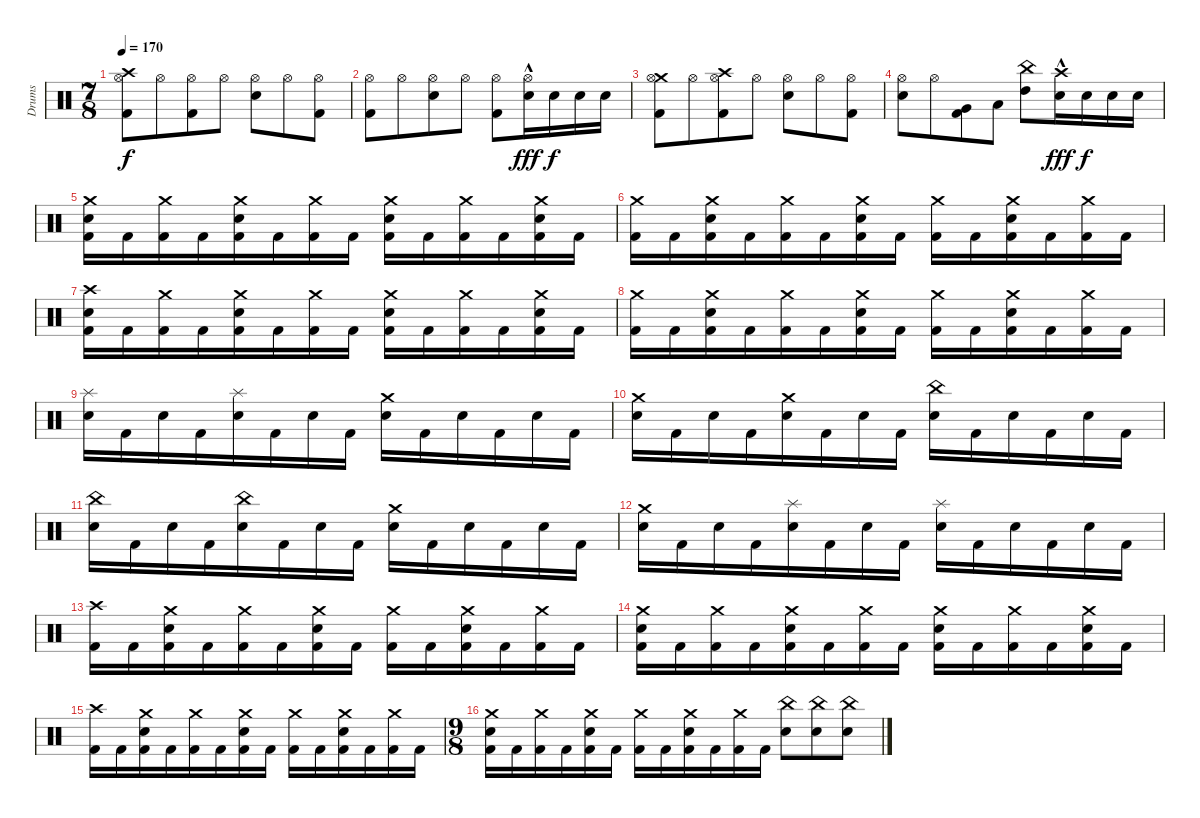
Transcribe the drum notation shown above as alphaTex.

\track ("Drums" "Drums") {instrument percussion}
\staff {score}
\articulation defaults
\ts (7 8)
\tempo 170
\clef neutral
\ks c
("Crash high (hit)" "Hi-Hat (open)" "Kick (hit) 2").8{dy f} "Hi-Hat (open)".8 ("Hi-Hat (open)" "Kick (hit) 2").8 "Hi-Hat (open)".8 ("Hi-Hat (open)" "Electric Snare (hit)").8 "Hi-Hat (open)".8 ("Hi-Hat (open)" "Kick (hit) 2").8 |
("Hi-Hat (open)" "Kick (hit) 2").8 "Hi-Hat (open)".8 ("Hi-Hat (open)" "Electric Snare (hit)").8 "Hi-Hat (open)".8 ("Hi-Hat (open)" "Kick (hit) 2").8 ("Hi-Hat (open)" "Electric Snare (hit)"{hac}).16{dy fff} "Electric Snare (hit)".16{dy f} "Electric Snare (hit)".16 "Electric Snare (hit)".16 |
("Crash medium (hit)" "Hi-Hat (open)" "Kick (hit) 2").8 "Hi-Hat (open)".8 ("Crash high (hit)" "Hi-Hat (open)" "Kick (hit) 2").8 "Hi-Hat (open)".8 ("Hi-Hat (open)" "Electric Snare (hit)").8 "Hi-Hat (open)".8 ("Hi-Hat (open)" "Kick (hit) 2").8 |
("Hi-Hat (open)" "Electric Snare (hit)").8 "Hi-Hat (open)".8 ("Very Low Tom (hit)" "Kick (hit) 2").8 "Low Tom (hit)".8 ("China (hit)" "High Tom (hit)").8 ("Crash high (hit)" "Electric Snare (hit)"{hac}).16{dy fff} "Electric Snare (hit)".16{dy f} "Electric Snare (hit)".16 "Electric Snare (hit)".16 |
("Crash medium (hit)" "Electric Snare (hit)" "Kick (hit) 2").16 "Kick (hit) 2".16 ("Crash medium (hit)" "Kick (hit) 2").16 "Kick (hit) 2".16 ("Crash medium (hit)" "Electric Snare (hit)" "Kick (hit) 2").16 "Kick (hit) 2".16 ("Crash medium (hit)" "Kick (hit) 2").16 "Kick (hit) 2".16 ("Crash medium (hit)" "Electric Snare (hit)" "Kick (hit) 2").16 "Kick (hit) 2".16 ("Crash medium (hit)" "Kick (hit) 2").16 "Kick (hit) 2".16 ("Crash medium (hit)" "Electric Snare (hit)" "Kick (hit) 2").16 "Kick (hit) 2".16 |
("Crash medium (hit)" "Kick (hit) 2").16 "Kick (hit) 2".16 ("Crash medium (hit)" "Electric Snare (hit)" "Kick (hit) 2").16 "Kick (hit) 2".16 ("Crash medium (hit)" "Kick (hit) 2").16 "Kick (hit) 2".16 ("Crash medium (hit)" "Electric Snare (hit)" "Kick (hit) 2").16 "Kick (hit) 2".16 ("Crash medium (hit)" "Kick (hit) 2").16 "Kick (hit) 2".16 ("Crash medium (hit)" "Electric Snare (hit)" "Kick (hit) 2").16 "Kick (hit) 2".16 ("Crash medium (hit)" "Kick (hit) 2").16 "Kick (hit) 2".16 |
("Crash high (hit)" "Electric Snare (hit)" "Kick (hit) 2").16 "Kick (hit) 2".16 ("Crash medium (hit)" "Kick (hit) 2").16 "Kick (hit) 2".16 ("Crash medium (hit)" "Electric Snare (hit)" "Kick (hit) 2").16 "Kick (hit) 2".16 ("Crash medium (hit)" "Kick (hit) 2").16 "Kick (hit) 2".16 ("Crash medium (hit)" "Electric Snare (hit)" "Kick (hit) 2").16 "Kick (hit) 2".16 ("Crash medium (hit)" "Kick (hit) 2").16 "Kick (hit) 2".16 ("Crash medium (hit)" "Electric Snare (hit)" "Kick (hit) 2").16 "Kick (hit) 2".16 |
("Crash medium (hit)" "Kick (hit) 2").16 "Kick (hit) 2".16 ("Crash medium (hit)" "Electric Snare (hit)" "Kick (hit) 2").16 "Kick (hit) 2".16 ("Crash medium (hit)" "Kick (hit) 2").16 "Kick (hit) 2".16 ("Crash medium (hit)" "Electric Snare (hit)" "Kick (hit) 2").16 "Kick (hit) 2".16 ("Crash medium (hit)" "Kick (hit) 2").16 "Kick (hit) 2".16 ("Crash medium (hit)" "Electric Snare (hit)" "Kick (hit) 2").16 "Kick (hit) 2".16 ("Crash medium (hit)" "Kick (hit) 2").16 "Kick (hit) 2".16 |
("Splash (hit)" "Electric Snare (hit)").16 "Kick (hit) 2".16 "Electric Snare (hit)".16 "Kick (hit) 2".16 ("Splash (hit)" "Electric Snare (hit)").16 "Kick (hit) 2".16 "Electric Snare (hit)".16 "Kick (hit) 2".16 ("Crash medium (hit)" "Electric Snare (hit)").16 "Kick (hit) 2".16 "Electric Snare (hit)".16 "Kick (hit) 2".16 "Electric Snare (hit)".16 "Kick (hit) 2".16 |
("Crash medium (hit)" "Electric Snare (hit)").16 "Kick (hit) 2".16 "Electric Snare (hit)".16 "Kick (hit) 2".16 ("Crash medium (hit)" "Electric Snare (hit)").16 "Kick (hit) 2".16 "Electric Snare (hit)".16 "Kick (hit) 2".16 ("China (hit)" "Electric Snare (hit)").16 "Kick (hit) 2".16 "Electric Snare (hit)".16 "Kick (hit) 2".16 "Electric Snare (hit)".16 "Kick (hit) 2".16 |
("China (hit)" "Electric Snare (hit)").16 "Kick (hit) 2".16 "Electric Snare (hit)".16 "Kick (hit) 2".16 ("China (hit)" "Electric Snare (hit)").16 "Kick (hit) 2".16 "Electric Snare (hit)".16 "Kick (hit) 2".16 ("Crash medium (hit)" "Electric Snare (hit)").16 "Kick (hit) 2".16 "Electric Snare (hit)".16 "Kick (hit) 2".16 "Electric Snare (hit)".16 "Kick (hit) 2".16 |
("Crash medium (hit)" "Electric Snare (hit)").16 "Kick (hit) 2".16 "Electric Snare (hit)".16 "Kick (hit) 2".16 ("Splash (hit)" "Electric Snare (hit)").16 "Kick (hit) 2".16 "Electric Snare (hit)".16 "Kick (hit) 2".16 ("Splash (hit)" "Electric Snare (hit)").16 "Kick (hit) 2".16 "Electric Snare (hit)".16 "Kick (hit) 2".16 "Electric Snare (hit)".16 "Kick (hit) 2".16 |
("Crash high (hit)" "Kick (hit) 2").16 "Kick (hit) 2".16 ("Crash medium (hit)" "Electric Snare (hit)" "Kick (hit) 2").16 "Kick (hit) 2".16 ("Crash medium (hit)" "Kick (hit) 2").16 "Kick (hit) 2".16 ("Crash medium (hit)" "Electric Snare (hit)" "Kick (hit) 2").16 "Kick (hit) 2".16 ("Crash medium (hit)" "Kick (hit) 2").16 "Kick (hit) 2".16 ("Crash medium (hit)" "Electric Snare (hit)" "Kick (hit) 2").16 "Kick (hit) 2".16 ("Crash medium (hit)" "Kick (hit) 2").16 "Kick (hit) 2".16 |
("Crash medium (hit)" "Electric Snare (hit)" "Kick (hit) 2").16 "Kick (hit) 2".16 ("Crash medium (hit)" "Kick (hit) 2").16 "Kick (hit) 2".16 ("Crash medium (hit)" "Electric Snare (hit)" "Kick (hit) 2").16 "Kick (hit) 2".16 ("Crash medium (hit)" "Kick (hit) 2").16 "Kick (hit) 2".16 ("Crash medium (hit)" "Electric Snare (hit)" "Kick (hit) 2").16 "Kick (hit) 2".16 ("Crash medium (hit)" "Kick (hit) 2").16 "Kick (hit) 2".16 ("Crash medium (hit)" "Electric Snare (hit)" "Kick (hit) 2").16 "Kick (hit) 2".16 |
("Crash high (hit)" "Kick (hit) 2").16 "Kick (hit) 2".16 ("Crash medium (hit)" "Electric Snare (hit)" "Kick (hit) 2").16 "Kick (hit) 2".16 ("Crash medium (hit)" "Kick (hit) 2").16 "Kick (hit) 2".16 ("Crash medium (hit)" "Electric Snare (hit)" "Kick (hit) 2").16 "Kick (hit) 2".16 ("Crash medium (hit)" "Kick (hit) 2").16 "Kick (hit) 2".16 ("Crash medium (hit)" "Electric Snare (hit)" "Kick (hit) 2").16 "Kick (hit) 2".16 ("Crash medium (hit)" "Kick (hit) 2").16 "Kick (hit) 2".16 |
\ts (9 8)
("Crash medium (hit)" "Electric Snare (hit)" "Kick (hit) 2").16 "Kick (hit) 2".16 ("Crash medium (hit)" "Kick (hit) 2").16 "Kick (hit) 2".16 ("Crash medium (hit)" "Electric Snare (hit)" "Kick (hit) 2").16 "Kick (hit) 2".16 ("Crash medium (hit)" "Kick (hit) 2").16 "Kick (hit) 2".16 ("Crash medium (hit)" "Electric Snare (hit)" "Kick (hit) 2").16 "Kick (hit) 2".16 ("Crash medium (hit)" "Kick (hit) 2").16 "Kick (hit) 2".16 ("China (hit)" "Electric Snare (hit)").8 ("China (hit)" "Electric Snare (hit)").8 ("China (hit)" "Electric Snare (hit)").8
